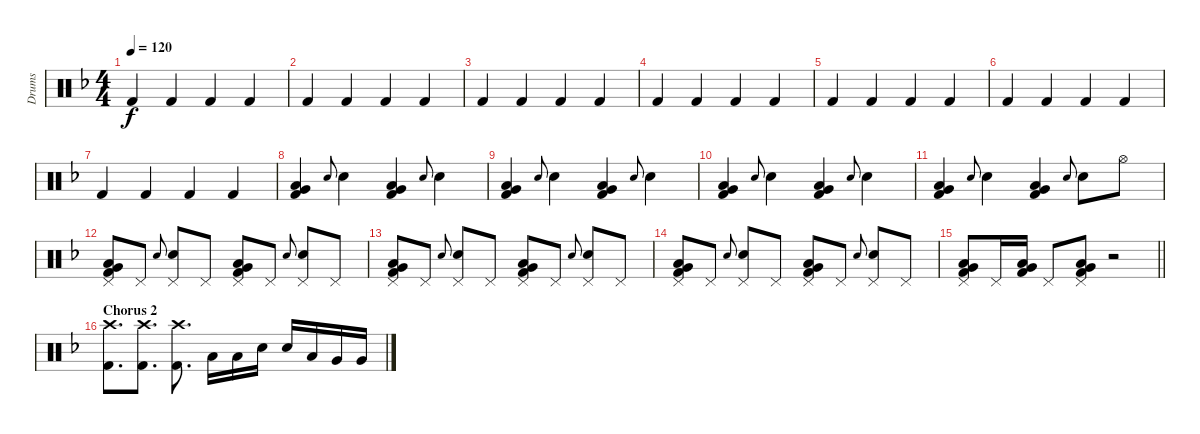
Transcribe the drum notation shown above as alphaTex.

\track ("Drums" "Drums") {instrument percussion}
\staff {score}
\articulation defaults
\ts (4 4)
\tempo 120
\clef neutral
\ks f "Kick (hit) 2".4{dy f} "Kick (hit) 2".4 "Kick (hit) 2".4 "Kick (hit) 2".4
|
"Kick (hit) 2".4 "Kick (hit) 2".4 "Kick (hit) 2".4 "Kick (hit) 2".4 |
"Kick (hit) 2".4 "Kick (hit) 2".4 "Kick (hit) 2".4 "Kick (hit) 2".4 |
"Kick (hit) 2".4 "Kick (hit) 2".4 "Kick (hit) 2".4 "Kick (hit) 2".4 |
"Kick (hit) 2".4 "Kick (hit) 2".4 "Kick (hit) 2".4 "Kick (hit) 2".4 |
"Kick (hit) 2".4 "Kick (hit) 2".4 "Kick (hit) 2".4 "Kick (hit) 2".4 |
"Kick (hit) 2".4 "Kick (hit) 2".4 "Kick (hit) 2".4 "Kick (hit) 2".4 |
("Low Tom (hit)" "Very Low Tom (hit)" "Kick (hit) 2").4 "Snare (hit) 2".8{gr onbeat} "Snare (hit) 2".4 ("Low Tom (hit)" "Very Low Tom (hit)" "Kick (hit) 2").4 "Snare (hit) 2".8{gr onbeat} "Snare (hit) 2".4 |
("Low Tom (hit)" "Very Low Tom (hit)" "Kick (hit) 2").4 "Snare (hit) 2".8{gr onbeat} "Snare (hit) 2".4 ("Low Tom (hit)" "Very Low Tom (hit)" "Kick (hit) 2").4 "Snare (hit) 2".8{gr onbeat} "Snare (hit) 2".4 |
("Low Tom (hit)" "Very Low Tom (hit)" "Kick (hit) 2").4 "Snare (hit) 2".8{gr onbeat} "Snare (hit) 2".4 ("Low Tom (hit)" "Very Low Tom (hit)" "Kick (hit) 2").4 "Snare (hit) 2".8{gr onbeat} "Snare (hit) 2".4 |
("Low Tom (hit)" "Very Low Tom (hit)" "Kick (hit) 2").4 "Snare (hit) 2".8{gr onbeat} "Snare (hit) 2".4 ("Low Tom (hit)" "Very Low Tom (hit)" "Kick (hit) 2").4 "Snare (hit) 2".8{gr onbeat} "Snare (hit) 2".8 "Hi-Hat (open)".8 |
("Low Tom (hit)" "Very Low Tom (hit)" "Kick (hit) 2" "Pedal Hi-Hat (hit)").8 "Pedal Hi-Hat (hit)".8 "Snare (hit) 2".8{gr onbeat} ("Snare (hit) 2" "Pedal Hi-Hat (hit)").8 "Pedal Hi-Hat (hit)".8 ("Low Tom (hit)" "Very Low Tom (hit)" "Kick (hit) 2" "Pedal Hi-Hat (hit)").8 "Pedal Hi-Hat (hit)".8 "Snare (hit) 2".8{gr onbeat} ("Snare (hit) 2" "Pedal Hi-Hat (hit)").8 "Pedal Hi-Hat (hit)".8 |
("Low Tom (hit)" "Very Low Tom (hit)" "Kick (hit) 2" "Pedal Hi-Hat (hit)").8 "Pedal Hi-Hat (hit)".8 "Snare (hit) 2".8{gr onbeat} ("Snare (hit) 2" "Pedal Hi-Hat (hit)").8 "Pedal Hi-Hat (hit)".8 ("Low Tom (hit)" "Very Low Tom (hit)" "Kick (hit) 2" "Pedal Hi-Hat (hit)").8 "Pedal Hi-Hat (hit)".8 "Snare (hit) 2".8{gr onbeat} ("Snare (hit) 2" "Pedal Hi-Hat (hit)").8 "Pedal Hi-Hat (hit)".8 |
("Low Tom (hit)" "Very Low Tom (hit)" "Kick (hit) 2" "Pedal Hi-Hat (hit)").8 "Pedal Hi-Hat (hit)".8 "Snare (hit) 2".8{gr onbeat} ("Snare (hit) 2" "Pedal Hi-Hat (hit)").8 "Pedal Hi-Hat (hit)".8 ("Low Tom (hit)" "Very Low Tom (hit)" "Kick (hit) 2" "Pedal Hi-Hat (hit)").8 "Pedal Hi-Hat (hit)".8 "Snare (hit) 2".8{gr onbeat} ("Snare (hit) 2" "Pedal Hi-Hat (hit)").8 "Pedal Hi-Hat (hit)".8 |
\barLineRight lightlight
("Low Tom (hit)" "Very Low Tom (hit)" "Kick (hit) 2" "Pedal Hi-Hat (hit)").8 "Pedal Hi-Hat (hit)".16 ("Low Tom (hit)" "Very Low Tom (hit)" "Kick (hit) 2").16 "Pedal Hi-Hat (hit)".8 ("Low Tom (hit)" "Very Low Tom (hit)" "Kick (hit) 2" "Pedal Hi-Hat (hit)").8 r.2 |
\section ("" "Chorus 2")
("Crash high (hit)" "Kick (hit) 2").8{d} ("Crash high (hit)" "Kick (hit) 2").8{d} ("Crash high (hit)" "Kick (hit) 2").8{d} "Low Tom (hit)".16 "Low Tom (hit)".16 "Snare (hit) 2".16 "Snare (hit) 2".16 "Low Tom (hit)".16 "Very Low Tom (hit)".16 "Very Low Tom (hit)".16
